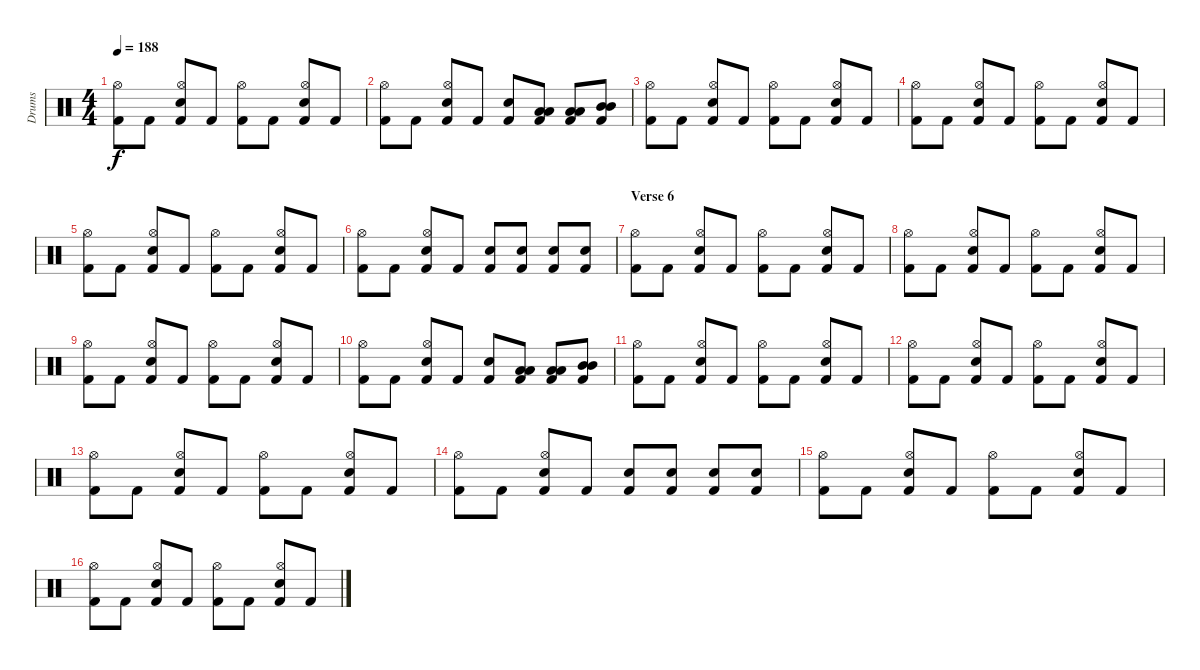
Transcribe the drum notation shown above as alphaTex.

\track ("Drums" "Drums") {instrument percussion}
\staff {score}
\articulation defaults
\ts (4 4)
\tempo 188
\clef neutral
\ks c
("Kick (hit) 2" "Hi-Hat (open)").8{dy f} "Kick (hit) 2".8 ("Kick (hit) 2" "Snare (hit) 2" "Hi-Hat (open)").8 "Kick (hit) 2".8 ("Kick (hit) 2" "Hi-Hat (open)").8 "Kick (hit) 2".8 ("Kick (hit) 2" "Snare (hit) 2" "Hi-Hat (open)").8 "Kick (hit) 2".8 |
("Kick (hit) 2" "Hi-Hat (open)").8 "Kick (hit) 2".8 ("Kick (hit) 2" "Snare (hit) 2" "Hi-Hat (open)").8 "Kick (hit) 2".8 ("Kick (hit) 2" "Snare (hit) 2").8 ("Kick (hit) 2" "Low Tom (hit)" "Low Tom (hit)").8 ("Kick (hit) 2" "Low Tom (hit)" "Low Tom (hit)").8 ("Kick (hit) 2" "Mid Tom (hit)" "Mid Tom (hit)").8 |
("Kick (hit) 2" "Hi-Hat (open)").8 "Kick (hit) 2".8 ("Kick (hit) 2" "Snare (hit) 2" "Hi-Hat (open)").8 "Kick (hit) 2".8 ("Kick (hit) 2" "Hi-Hat (open)").8 "Kick (hit) 2".8 ("Kick (hit) 2" "Snare (hit) 2" "Hi-Hat (open)").8 "Kick (hit) 2".8 |
("Kick (hit) 2" "Hi-Hat (open)").8 "Kick (hit) 2".8 ("Kick (hit) 2" "Snare (hit) 2" "Hi-Hat (open)").8 "Kick (hit) 2".8 ("Kick (hit) 2" "Hi-Hat (open)").8 "Kick (hit) 2".8 ("Kick (hit) 2" "Snare (hit) 2" "Hi-Hat (open)").8 "Kick (hit) 2".8 |
("Kick (hit) 2" "Hi-Hat (open)").8 "Kick (hit) 2".8 ("Kick (hit) 2" "Snare (hit) 2" "Hi-Hat (open)").8 "Kick (hit) 2".8 ("Kick (hit) 2" "Hi-Hat (open)").8 "Kick (hit) 2".8 ("Kick (hit) 2" "Snare (hit) 2" "Hi-Hat (open)").8 "Kick (hit) 2".8 |
("Kick (hit) 2" "Hi-Hat (open)").8 "Kick (hit) 2".8 ("Kick (hit) 2" "Snare (hit) 2" "Hi-Hat (open)").8 "Kick (hit) 2".8 ("Kick (hit) 2" "Snare (hit) 2").8 ("Kick (hit) 2" "Snare (hit) 2").8 ("Kick (hit) 2" "Snare (hit) 2").8 ("Kick (hit) 2" "Snare (hit) 2").8 |
\section ("" "Verse 6")
("Kick (hit) 2" "Hi-Hat (open)").8 "Kick (hit) 2".8 ("Kick (hit) 2" "Snare (hit) 2" "Hi-Hat (open)").8 "Kick (hit) 2".8 ("Kick (hit) 2" "Hi-Hat (open)").8 "Kick (hit) 2".8 ("Kick (hit) 2" "Snare (hit) 2" "Hi-Hat (open)").8 "Kick (hit) 2".8 |
("Kick (hit) 2" "Hi-Hat (open)").8 "Kick (hit) 2".8 ("Kick (hit) 2" "Snare (hit) 2" "Hi-Hat (open)").8 "Kick (hit) 2".8 ("Kick (hit) 2" "Hi-Hat (open)").8 "Kick (hit) 2".8 ("Kick (hit) 2" "Snare (hit) 2" "Hi-Hat (open)").8 "Kick (hit) 2".8 |
("Kick (hit) 2" "Hi-Hat (open)").8 "Kick (hit) 2".8 ("Kick (hit) 2" "Snare (hit) 2" "Hi-Hat (open)").8 "Kick (hit) 2".8 ("Kick (hit) 2" "Hi-Hat (open)").8 "Kick (hit) 2".8 ("Kick (hit) 2" "Snare (hit) 2" "Hi-Hat (open)").8 "Kick (hit) 2".8 |
("Kick (hit) 2" "Hi-Hat (open)").8 "Kick (hit) 2".8 ("Kick (hit) 2" "Snare (hit) 2" "Hi-Hat (open)").8 "Kick (hit) 2".8 ("Kick (hit) 2" "Snare (hit) 2").8 ("Kick (hit) 2" "Low Tom (hit)" "Low Tom (hit)").8 ("Kick (hit) 2" "Low Tom (hit)" "Low Tom (hit)").8 ("Kick (hit) 2" "Mid Tom (hit)" "Mid Tom (hit)").8 |
("Kick (hit) 2" "Hi-Hat (open)").8 "Kick (hit) 2".8 ("Kick (hit) 2" "Snare (hit) 2" "Hi-Hat (open)").8 "Kick (hit) 2".8 ("Kick (hit) 2" "Hi-Hat (open)").8 "Kick (hit) 2".8 ("Kick (hit) 2" "Snare (hit) 2" "Hi-Hat (open)").8 "Kick (hit) 2".8 |
("Kick (hit) 2" "Hi-Hat (open)").8 "Kick (hit) 2".8 ("Kick (hit) 2" "Snare (hit) 2" "Hi-Hat (open)").8 "Kick (hit) 2".8 ("Kick (hit) 2" "Hi-Hat (open)").8 "Kick (hit) 2".8 ("Kick (hit) 2" "Snare (hit) 2" "Hi-Hat (open)").8 "Kick (hit) 2".8 |
("Kick (hit) 2" "Hi-Hat (open)").8 "Kick (hit) 2".8 ("Kick (hit) 2" "Snare (hit) 2" "Hi-Hat (open)").8 "Kick (hit) 2".8 ("Kick (hit) 2" "Hi-Hat (open)").8 "Kick (hit) 2".8 ("Kick (hit) 2" "Snare (hit) 2" "Hi-Hat (open)").8 "Kick (hit) 2".8 |
("Kick (hit) 2" "Hi-Hat (open)").8 "Kick (hit) 2".8 ("Kick (hit) 2" "Snare (hit) 2" "Hi-Hat (open)").8 "Kick (hit) 2".8 ("Kick (hit) 2" "Snare (hit) 2").8 ("Kick (hit) 2" "Snare (hit) 2").8 ("Kick (hit) 2" "Snare (hit) 2").8 ("Kick (hit) 2" "Snare (hit) 2").8 |
("Kick (hit) 2" "Hi-Hat (open)").8 "Kick (hit) 2".8 ("Kick (hit) 2" "Snare (hit) 2" "Hi-Hat (open)").8 "Kick (hit) 2".8 ("Kick (hit) 2" "Hi-Hat (open)").8 "Kick (hit) 2".8 ("Kick (hit) 2" "Snare (hit) 2" "Hi-Hat (open)").8 "Kick (hit) 2".8 |
("Kick (hit) 2" "Hi-Hat (open)").8 "Kick (hit) 2".8 ("Kick (hit) 2" "Snare (hit) 2" "Hi-Hat (open)").8 "Kick (hit) 2".8 ("Kick (hit) 2" "Hi-Hat (open)").8 "Kick (hit) 2".8 ("Kick (hit) 2" "Snare (hit) 2" "Hi-Hat (open)").8 "Kick (hit) 2".8
